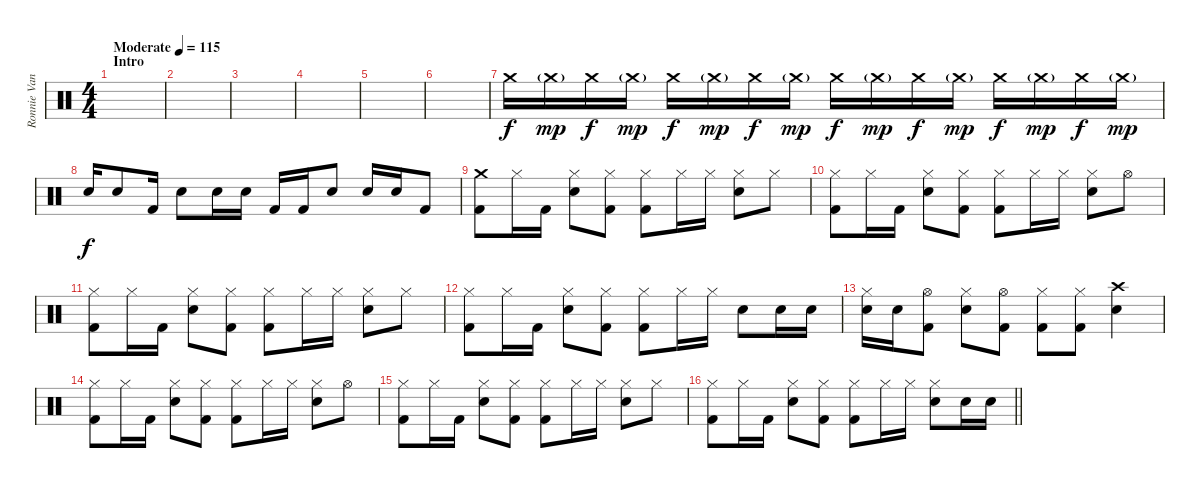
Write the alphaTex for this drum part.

\track ("Ronnie Vannucci Jr. (Drums)" "Ronnie Van") {instrument percussion}
\staff {score}
\articulation defaults
\ts (4 4)
\section ("" "Intro")
\tempo (115 "Moderate")
\clef neutral
\ks c
|
|
|
|
|
|
"Crash medium (hit)".16{volume 13} "Crash medium (hit)"{g}.16{dy mp} "Crash medium (hit)".16{dy f} "Crash medium (hit)"{g}.16{dy mp} "Crash medium (hit)".16{dy f} "Crash medium (hit)"{g}.16{dy mp} "Crash medium (hit)".16{dy f} "Crash medium (hit)"{g}.16{dy mp} "Crash medium (hit)".16{dy f} "Crash medium (hit)"{g}.16{dy mp} "Crash medium (hit)".16{dy f} "Crash medium (hit)"{g}.16{dy mp} "Crash medium (hit)".16{dy f} "Crash medium (hit)"{g}.16{dy mp} "Crash medium (hit)".16{dy f} "Crash medium (hit)"{g}.16{dy mp} |
"Electric Snare (hit)".16{dy f} "Electric Snare (hit)".8 "Kick (hit) 2".16 "Electric Snare (hit)".8 "Electric Snare (hit)".16 "Electric Snare (hit)".16 "Kick (hit) 2".16 "Kick (hit) 2".16 "Electric Snare (hit)".8 "Electric Snare (hit)".16 "Electric Snare (hit)".16 "Kick (hit) 2".8 |
("Crash medium (hit)" "Kick (hit) 2").8 "Hi-Hat (closed)".16 "Kick (hit) 2".16 ("Hi-Hat (closed)" "Electric Snare (hit)").8 ("Hi-Hat (closed)" "Kick (hit) 2").8 ("Hi-Hat (closed)" "Kick (hit) 2").8 "Hi-Hat (closed)".16 "Hi-Hat (closed)".16 ("Hi-Hat (closed)" "Electric Snare (hit)").8 "Hi-Hat (closed)".8 |
("Hi-Hat (closed)" "Kick (hit) 2").8 "Hi-Hat (closed)".16 "Kick (hit) 2".16 ("Hi-Hat (closed)" "Electric Snare (hit)").8 ("Hi-Hat (closed)" "Kick (hit) 2").8 ("Hi-Hat (closed)" "Kick (hit) 2").8 "Hi-Hat (closed)".16 "Hi-Hat (closed)".16 ("Hi-Hat (closed)" "Electric Snare (hit)").8 "Hi-Hat (open)".8 |
("Hi-Hat (closed)" "Kick (hit) 2").8 "Hi-Hat (closed)".16 "Kick (hit) 2".16 ("Hi-Hat (closed)" "Electric Snare (hit)").8 ("Hi-Hat (closed)" "Kick (hit) 2").8 ("Hi-Hat (closed)" "Kick (hit) 2").8 "Hi-Hat (closed)".16 "Hi-Hat (closed)".16 ("Hi-Hat (closed)" "Electric Snare (hit)").8 "Hi-Hat (closed)".8 |
("Hi-Hat (closed)" "Kick (hit) 2").8 "Hi-Hat (closed)".16 "Kick (hit) 2".16 ("Hi-Hat (closed)" "Electric Snare (hit)").8 ("Hi-Hat (closed)" "Kick (hit) 2").8 ("Hi-Hat (closed)" "Kick (hit) 2").8 "Hi-Hat (closed)".16 "Hi-Hat (closed)".16 "Electric Snare (hit)".8 "Electric Snare (hit)".16 "Electric Snare (hit)".16 |
("Hi-Hat (closed)" "Electric Snare (hit)").16 "Electric Snare (hit)".16 ("Hi-Hat (open)" "Kick (hit) 2").8 ("Hi-Hat (closed)" "Electric Snare (hit)").8 ("Hi-Hat (open)" "Kick (hit) 2").8 ("Hi-Hat (closed)" "Kick (hit) 2").8 ("Hi-Hat (closed)" "Kick (hit) 2").8 ("Crash high (hit)" "Electric Snare (hit)").4 |
("Hi-Hat (closed)" "Kick (hit) 2").8 "Hi-Hat (closed)".16 "Kick (hit) 2".16 ("Hi-Hat (closed)" "Electric Snare (hit)").8 ("Hi-Hat (closed)" "Kick (hit) 2").8 ("Hi-Hat (closed)" "Kick (hit) 2").8 "Hi-Hat (closed)".16 "Hi-Hat (closed)".16 ("Hi-Hat (closed)" "Electric Snare (hit)").8 "Hi-Hat (open)".8 |
("Hi-Hat (closed)" "Kick (hit) 2").8 "Hi-Hat (closed)".16 "Kick (hit) 2".16 ("Hi-Hat (closed)" "Electric Snare (hit)").8 ("Hi-Hat (closed)" "Kick (hit) 2").8 ("Hi-Hat (closed)" "Kick (hit) 2").8 "Hi-Hat (closed)".16 "Hi-Hat (closed)".16 ("Hi-Hat (closed)" "Electric Snare (hit)").8 "Hi-Hat (closed)".8 |
\barLineRight lightlight
("Hi-Hat (closed)" "Kick (hit) 2").8 "Hi-Hat (closed)".16 "Kick (hit) 2".16 ("Hi-Hat (closed)" "Electric Snare (hit)").8 ("Hi-Hat (closed)" "Kick (hit) 2").8 ("Hi-Hat (closed)" "Kick (hit) 2").8 "Hi-Hat (closed)".16 "Hi-Hat (closed)".16 ("Hi-Hat (closed)" "Electric Snare (hit)").8 "Electric Snare (hit)".16 "Electric Snare (hit)".16
